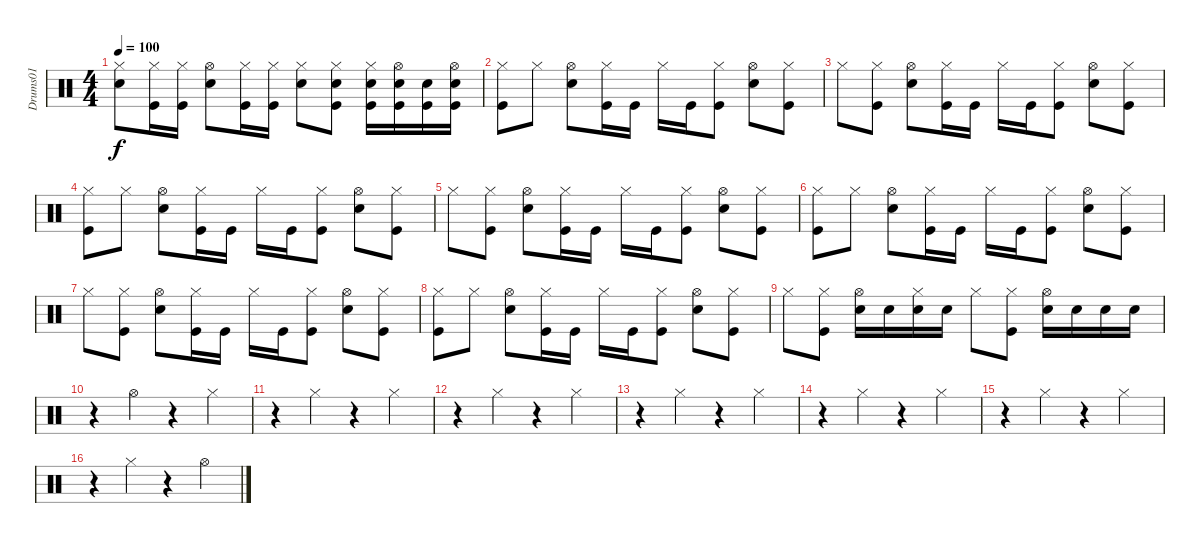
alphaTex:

\track ("Drums01" "Drums01") {instrument percussion}
\staff {score}
\articulation defaults
\ts (4 4)
\tempo 100
\clef neutral
\ks c
("Hi-Hat (closed)" "Snare (hit) 2").8{dy f} ("Hi-Hat (closed)" "Kick (hit)").16 ("Hi-Hat (closed)" "Kick (hit)").16 ("Hi-Hat (open)" "Snare (hit) 2").8 ("Hi-Hat (closed)" "Kick (hit)").16 ("Hi-Hat (closed)" "Kick (hit)").16 ("Hi-Hat (closed)" "Snare (hit) 2").8 ("Hi-Hat (closed)" "Snare (hit) 2" "Kick (hit)").8 ("Hi-Hat (closed)" "Snare (hit) 2" "Kick (hit)").16 ("Hi-Hat (open)" "Snare (hit) 2" "Kick (hit)").16 ("Snare (hit) 2" "Kick (hit)").16 ("Hi-Hat (open)" "Snare (hit) 2" "Kick (hit)").16 |
("Hi-Hat (closed)" "Kick (hit)").8 "Hi-Hat (closed)".8 ("Hi-Hat (open)" "Snare (hit) 2").8 ("Hi-Hat (closed)" "Kick (hit)").16 "Kick (hit)".16 "Hi-Hat (closed)".16 "Kick (hit)".16 ("Hi-Hat (closed)" "Kick (hit)").8 ("Hi-Hat (open)" "Snare (hit) 2").8 ("Hi-Hat (closed)" "Kick (hit)").8 |
"Hi-Hat (closed)".8 ("Hi-Hat (closed)" "Kick (hit)").8 ("Hi-Hat (open)" "Snare (hit) 2").8 ("Hi-Hat (closed)" "Kick (hit)").16 "Kick (hit)".16 "Hi-Hat (closed)".16 "Kick (hit)".16 ("Hi-Hat (closed)" "Kick (hit)").8 ("Hi-Hat (open)" "Snare (hit) 2").8 ("Hi-Hat (closed)" "Kick (hit)").8 |
("Hi-Hat (closed)" "Kick (hit)").8 "Hi-Hat (closed)".8 ("Hi-Hat (open)" "Snare (hit) 2").8 ("Hi-Hat (closed)" "Kick (hit)").16 "Kick (hit)".16 "Hi-Hat (closed)".16 "Kick (hit)".16 ("Hi-Hat (closed)" "Kick (hit)").8 ("Hi-Hat (open)" "Snare (hit) 2").8 ("Hi-Hat (closed)" "Kick (hit)").8 |
"Hi-Hat (closed)".8 ("Hi-Hat (closed)" "Kick (hit)").8 ("Hi-Hat (open)" "Snare (hit) 2").8 ("Hi-Hat (closed)" "Kick (hit)").16 "Kick (hit)".16 "Hi-Hat (closed)".16 "Kick (hit)".16 ("Hi-Hat (closed)" "Kick (hit)").8 ("Hi-Hat (open)" "Snare (hit) 2").8 ("Hi-Hat (closed)" "Kick (hit)").8 |
("Hi-Hat (closed)" "Kick (hit)").8 "Hi-Hat (closed)".8 ("Hi-Hat (open)" "Snare (hit) 2").8 ("Hi-Hat (closed)" "Kick (hit)").16 "Kick (hit)".16 "Hi-Hat (closed)".16 "Kick (hit)".16 ("Hi-Hat (closed)" "Kick (hit)").8 ("Hi-Hat (open)" "Snare (hit) 2").8 ("Hi-Hat (closed)" "Kick (hit)").8 |
"Hi-Hat (closed)".8 ("Hi-Hat (closed)" "Kick (hit)").8 ("Hi-Hat (open)" "Snare (hit) 2").8 ("Hi-Hat (closed)" "Kick (hit)").16 "Kick (hit)".16 "Hi-Hat (closed)".16 "Kick (hit)".16 ("Hi-Hat (closed)" "Kick (hit)").8 ("Hi-Hat (open)" "Snare (hit) 2").8 ("Hi-Hat (closed)" "Kick (hit)").8 |
("Hi-Hat (closed)" "Kick (hit)").8 "Hi-Hat (closed)".8 ("Hi-Hat (open)" "Snare (hit) 2").8 ("Hi-Hat (closed)" "Kick (hit)").16 "Kick (hit)".16 "Hi-Hat (closed)".16 "Kick (hit)".16 ("Hi-Hat (closed)" "Kick (hit)").8 ("Hi-Hat (open)" "Snare (hit) 2").8 ("Hi-Hat (closed)" "Kick (hit)").8 |
"Hi-Hat (closed)".8 ("Hi-Hat (closed)" "Kick (hit)").8 ("Hi-Hat (open)" "Snare (hit) 2").16 "Snare (hit) 2".16 ("Hi-Hat (closed)" "Snare (hit) 2").16 "Snare (hit) 2".16 "Hi-Hat (closed)".8 ("Hi-Hat (closed)" "Kick (hit)").8 ("Hi-Hat (open)" "Snare (hit) 2").16 "Snare (hit) 2".16 "Snare (hit) 2".16 "Snare (hit) 2".16 |
r.4 "Hi-Hat (open)".4 r.4 "Hi-Hat (closed)".4 |
r.4 "Hi-Hat (closed)".4 r.4 "Hi-Hat (closed)".4 |
r.4 "Hi-Hat (closed)".4 r.4 "Hi-Hat (closed)".4 |
r.4 "Hi-Hat (closed)".4 r.4 "Hi-Hat (closed)".4 |
r.4 "Hi-Hat (closed)".4 r.4 "Hi-Hat (closed)".4 |
r.4 "Hi-Hat (closed)".4 r.4 "Hi-Hat (closed)".4 |
r.4 "Hi-Hat (closed)".4 r.4 "Hi-Hat (open)".4
